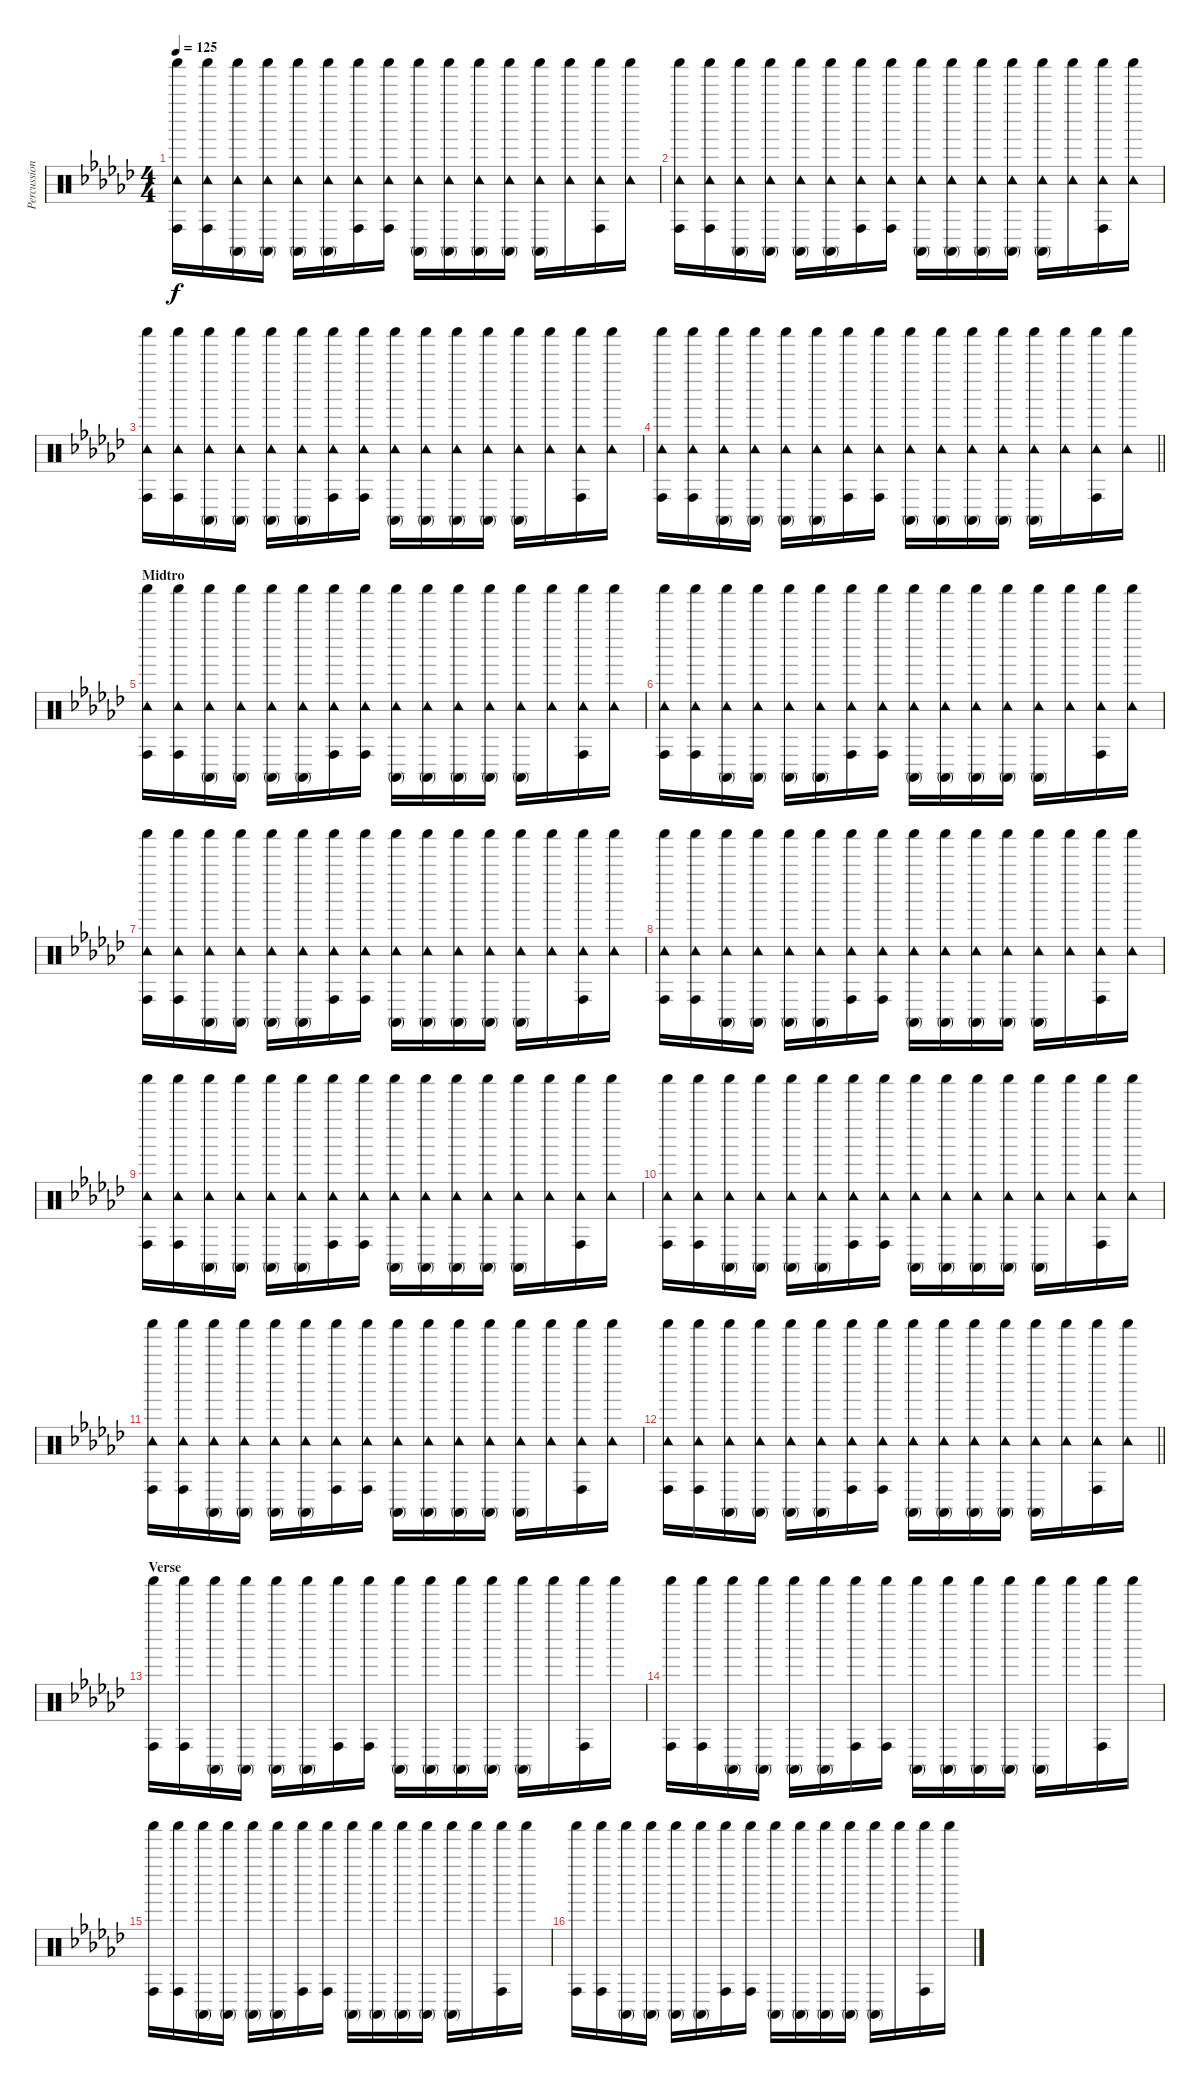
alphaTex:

\track ("Percussion" "Percussion") {instrument percussion}
\staff {score}
\articulation defaults
\ts (4 4)
\tempo 125
\clef neutral
\ks gb
("Shaker (hit)" "Tambourine (hit)" "Conga high (hit)").16{dy f} ("Shaker (hit)" "Tambourine (hit)" "Conga high (hit)").16 ("Shaker (hit)" "Tambourine (hit)" "Conga high (mute)").16 ("Shaker (hit)" "Tambourine (hit)" "Conga high (mute)").16 ("Shaker (hit)" "Tambourine (hit)" "Conga high (mute)").16 ("Shaker (hit)" "Tambourine (hit)" "Conga high (mute)").16 ("Shaker (hit)" "Tambourine (hit)" "Conga high (hit)").16 ("Shaker (hit)" "Tambourine (hit)" "Conga high (hit)").16 ("Shaker (hit)" "Tambourine (hit)" "Conga high (mute)").16 ("Shaker (hit)" "Tambourine (hit)" "Conga high (mute)").16 ("Shaker (hit)" "Tambourine (hit)" "Conga high (mute)").16 ("Shaker (hit)" "Tambourine (hit)" "Conga high (mute)").16 ("Shaker (hit)" "Tambourine (hit)" "Conga high (mute)").16 ("Shaker (hit)" "Tambourine (hit)").16 ("Shaker (hit)" "Tambourine (hit)" "Conga high (hit)").16 ("Shaker (hit)" "Tambourine (hit)").16 |
("Shaker (hit)" "Tambourine (hit)" "Conga high (hit)").16 ("Shaker (hit)" "Tambourine (hit)" "Conga high (hit)").16 ("Shaker (hit)" "Tambourine (hit)" "Conga high (mute)").16 ("Shaker (hit)" "Tambourine (hit)" "Conga high (mute)").16 ("Shaker (hit)" "Tambourine (hit)" "Conga high (mute)").16 ("Shaker (hit)" "Tambourine (hit)" "Conga high (mute)").16 ("Shaker (hit)" "Tambourine (hit)" "Conga high (hit)").16 ("Shaker (hit)" "Tambourine (hit)" "Conga high (hit)").16 ("Shaker (hit)" "Tambourine (hit)" "Conga high (mute)").16 ("Shaker (hit)" "Tambourine (hit)" "Conga high (mute)").16 ("Shaker (hit)" "Tambourine (hit)" "Conga high (mute)").16 ("Shaker (hit)" "Tambourine (hit)" "Conga high (mute)").16 ("Shaker (hit)" "Tambourine (hit)" "Conga high (mute)").16 ("Shaker (hit)" "Tambourine (hit)").16 ("Shaker (hit)" "Tambourine (hit)" "Conga high (hit)").16 ("Shaker (hit)" "Tambourine (hit)").16 |
("Shaker (hit)" "Tambourine (hit)" "Conga high (hit)").16 ("Shaker (hit)" "Tambourine (hit)" "Conga high (hit)").16 ("Shaker (hit)" "Tambourine (hit)" "Conga high (mute)").16 ("Shaker (hit)" "Tambourine (hit)" "Conga high (mute)").16 ("Shaker (hit)" "Tambourine (hit)" "Conga high (mute)").16 ("Shaker (hit)" "Tambourine (hit)" "Conga high (mute)").16 ("Shaker (hit)" "Tambourine (hit)" "Conga high (hit)").16 ("Shaker (hit)" "Tambourine (hit)" "Conga high (hit)").16 ("Shaker (hit)" "Tambourine (hit)" "Conga high (mute)").16 ("Shaker (hit)" "Tambourine (hit)" "Conga high (mute)").16 ("Shaker (hit)" "Tambourine (hit)" "Conga high (mute)").16 ("Shaker (hit)" "Tambourine (hit)" "Conga high (mute)").16 ("Shaker (hit)" "Tambourine (hit)" "Conga high (mute)").16 ("Shaker (hit)" "Tambourine (hit)").16 ("Shaker (hit)" "Tambourine (hit)" "Conga high (hit)").16 ("Shaker (hit)" "Tambourine (hit)").16 |
\barLineRight lightlight
("Shaker (hit)" "Tambourine (hit)" "Conga high (hit)").16 ("Shaker (hit)" "Tambourine (hit)" "Conga high (hit)").16 ("Shaker (hit)" "Tambourine (hit)" "Conga high (mute)").16 ("Shaker (hit)" "Tambourine (hit)" "Conga high (mute)").16 ("Shaker (hit)" "Tambourine (hit)" "Conga high (mute)").16 ("Shaker (hit)" "Tambourine (hit)" "Conga high (mute)").16 ("Shaker (hit)" "Tambourine (hit)" "Conga high (hit)").16 ("Shaker (hit)" "Tambourine (hit)" "Conga high (hit)").16 ("Shaker (hit)" "Tambourine (hit)" "Conga high (mute)").16 ("Shaker (hit)" "Tambourine (hit)" "Conga high (mute)").16 ("Shaker (hit)" "Tambourine (hit)" "Conga high (mute)").16 ("Shaker (hit)" "Tambourine (hit)" "Conga high (mute)").16 ("Shaker (hit)" "Tambourine (hit)" "Conga high (mute)").16 ("Shaker (hit)" "Tambourine (hit)").16 ("Shaker (hit)" "Tambourine (hit)" "Conga high (hit)").16 ("Shaker (hit)" "Tambourine (hit)").16 |
\section ("" "Midtro")
("Shaker (hit)" "Tambourine (hit)" "Conga high (hit)").16 ("Shaker (hit)" "Tambourine (hit)" "Conga high (hit)").16 ("Shaker (hit)" "Tambourine (hit)" "Conga high (mute)").16 ("Shaker (hit)" "Tambourine (hit)" "Conga high (mute)").16 ("Shaker (hit)" "Tambourine (hit)" "Conga high (mute)").16 ("Shaker (hit)" "Tambourine (hit)" "Conga high (mute)").16 ("Shaker (hit)" "Tambourine (hit)" "Conga high (hit)").16 ("Shaker (hit)" "Tambourine (hit)" "Conga high (hit)").16 ("Shaker (hit)" "Tambourine (hit)" "Conga high (mute)").16 ("Shaker (hit)" "Tambourine (hit)" "Conga high (mute)").16 ("Shaker (hit)" "Tambourine (hit)" "Conga high (mute)").16 ("Shaker (hit)" "Tambourine (hit)" "Conga high (mute)").16 ("Shaker (hit)" "Tambourine (hit)" "Conga high (mute)").16 ("Shaker (hit)" "Tambourine (hit)").16 ("Shaker (hit)" "Tambourine (hit)" "Conga high (hit)").16 ("Shaker (hit)" "Tambourine (hit)").16 |
("Shaker (hit)" "Tambourine (hit)" "Conga high (hit)").16 ("Shaker (hit)" "Tambourine (hit)" "Conga high (hit)").16 ("Shaker (hit)" "Tambourine (hit)" "Conga high (mute)").16 ("Shaker (hit)" "Tambourine (hit)" "Conga high (mute)").16 ("Shaker (hit)" "Tambourine (hit)" "Conga high (mute)").16 ("Shaker (hit)" "Tambourine (hit)" "Conga high (mute)").16 ("Shaker (hit)" "Tambourine (hit)" "Conga high (hit)").16 ("Shaker (hit)" "Tambourine (hit)" "Conga high (hit)").16 ("Shaker (hit)" "Tambourine (hit)" "Conga high (mute)").16 ("Shaker (hit)" "Tambourine (hit)" "Conga high (mute)").16 ("Shaker (hit)" "Tambourine (hit)" "Conga high (mute)").16 ("Shaker (hit)" "Tambourine (hit)" "Conga high (mute)").16 ("Shaker (hit)" "Tambourine (hit)" "Conga high (mute)").16 ("Shaker (hit)" "Tambourine (hit)").16 ("Shaker (hit)" "Tambourine (hit)" "Conga high (hit)").16 ("Shaker (hit)" "Tambourine (hit)").16 |
("Shaker (hit)" "Tambourine (hit)" "Conga high (hit)").16 ("Shaker (hit)" "Tambourine (hit)" "Conga high (hit)").16 ("Shaker (hit)" "Tambourine (hit)" "Conga high (mute)").16 ("Shaker (hit)" "Tambourine (hit)" "Conga high (mute)").16 ("Shaker (hit)" "Tambourine (hit)" "Conga high (mute)").16 ("Shaker (hit)" "Tambourine (hit)" "Conga high (mute)").16 ("Shaker (hit)" "Tambourine (hit)" "Conga high (hit)").16 ("Shaker (hit)" "Tambourine (hit)" "Conga high (hit)").16 ("Shaker (hit)" "Tambourine (hit)" "Conga high (mute)").16 ("Shaker (hit)" "Tambourine (hit)" "Conga high (mute)").16 ("Shaker (hit)" "Tambourine (hit)" "Conga high (mute)").16 ("Shaker (hit)" "Tambourine (hit)" "Conga high (mute)").16 ("Shaker (hit)" "Tambourine (hit)" "Conga high (mute)").16 ("Shaker (hit)" "Tambourine (hit)").16 ("Shaker (hit)" "Tambourine (hit)" "Conga high (hit)").16 ("Shaker (hit)" "Tambourine (hit)").16 |
("Shaker (hit)" "Tambourine (hit)" "Conga high (hit)").16 ("Shaker (hit)" "Tambourine (hit)" "Conga high (hit)").16 ("Shaker (hit)" "Tambourine (hit)" "Conga high (mute)").16 ("Shaker (hit)" "Tambourine (hit)" "Conga high (mute)").16 ("Shaker (hit)" "Tambourine (hit)" "Conga high (mute)").16 ("Shaker (hit)" "Tambourine (hit)" "Conga high (mute)").16 ("Shaker (hit)" "Tambourine (hit)" "Conga high (hit)").16 ("Shaker (hit)" "Tambourine (hit)" "Conga high (hit)").16 ("Shaker (hit)" "Tambourine (hit)" "Conga high (mute)").16 ("Shaker (hit)" "Tambourine (hit)" "Conga high (mute)").16 ("Shaker (hit)" "Tambourine (hit)" "Conga high (mute)").16 ("Shaker (hit)" "Tambourine (hit)" "Conga high (mute)").16 ("Shaker (hit)" "Tambourine (hit)" "Conga high (mute)").16 ("Shaker (hit)" "Tambourine (hit)").16 ("Shaker (hit)" "Tambourine (hit)" "Conga high (hit)").16 ("Shaker (hit)" "Tambourine (hit)").16 |
("Shaker (hit)" "Tambourine (hit)" "Conga high (hit)").16 ("Shaker (hit)" "Tambourine (hit)" "Conga high (hit)").16 ("Shaker (hit)" "Tambourine (hit)" "Conga high (mute)").16 ("Shaker (hit)" "Tambourine (hit)" "Conga high (mute)").16 ("Shaker (hit)" "Tambourine (hit)" "Conga high (mute)").16 ("Shaker (hit)" "Tambourine (hit)" "Conga high (mute)").16 ("Shaker (hit)" "Tambourine (hit)" "Conga high (hit)").16 ("Shaker (hit)" "Tambourine (hit)" "Conga high (hit)").16 ("Shaker (hit)" "Tambourine (hit)" "Conga high (mute)").16 ("Shaker (hit)" "Tambourine (hit)" "Conga high (mute)").16 ("Shaker (hit)" "Tambourine (hit)" "Conga high (mute)").16 ("Shaker (hit)" "Tambourine (hit)" "Conga high (mute)").16 ("Shaker (hit)" "Tambourine (hit)" "Conga high (mute)").16 ("Shaker (hit)" "Tambourine (hit)").16 ("Shaker (hit)" "Tambourine (hit)" "Conga high (hit)").16 ("Shaker (hit)" "Tambourine (hit)").16 |
("Shaker (hit)" "Tambourine (hit)" "Conga high (hit)").16 ("Shaker (hit)" "Tambourine (hit)" "Conga high (hit)").16 ("Shaker (hit)" "Tambourine (hit)" "Conga high (mute)").16 ("Shaker (hit)" "Tambourine (hit)" "Conga high (mute)").16 ("Shaker (hit)" "Tambourine (hit)" "Conga high (mute)").16 ("Shaker (hit)" "Tambourine (hit)" "Conga high (mute)").16 ("Shaker (hit)" "Tambourine (hit)" "Conga high (hit)").16 ("Shaker (hit)" "Tambourine (hit)" "Conga high (hit)").16 ("Shaker (hit)" "Tambourine (hit)" "Conga high (mute)").16 ("Shaker (hit)" "Tambourine (hit)" "Conga high (mute)").16 ("Shaker (hit)" "Tambourine (hit)" "Conga high (mute)").16 ("Shaker (hit)" "Tambourine (hit)" "Conga high (mute)").16 ("Shaker (hit)" "Tambourine (hit)" "Conga high (mute)").16 ("Shaker (hit)" "Tambourine (hit)").16 ("Shaker (hit)" "Tambourine (hit)" "Conga high (hit)").16 ("Shaker (hit)" "Tambourine (hit)").16 |
("Shaker (hit)" "Tambourine (hit)" "Conga high (hit)").16 ("Shaker (hit)" "Tambourine (hit)" "Conga high (hit)").16 ("Shaker (hit)" "Tambourine (hit)" "Conga high (mute)").16 ("Shaker (hit)" "Tambourine (hit)" "Conga high (mute)").16 ("Shaker (hit)" "Tambourine (hit)" "Conga high (mute)").16 ("Shaker (hit)" "Tambourine (hit)" "Conga high (mute)").16 ("Shaker (hit)" "Tambourine (hit)" "Conga high (hit)").16 ("Shaker (hit)" "Tambourine (hit)" "Conga high (hit)").16 ("Shaker (hit)" "Tambourine (hit)" "Conga high (mute)").16 ("Shaker (hit)" "Tambourine (hit)" "Conga high (mute)").16 ("Shaker (hit)" "Tambourine (hit)" "Conga high (mute)").16 ("Shaker (hit)" "Tambourine (hit)" "Conga high (mute)").16 ("Shaker (hit)" "Tambourine (hit)" "Conga high (mute)").16 ("Shaker (hit)" "Tambourine (hit)").16 ("Shaker (hit)" "Tambourine (hit)" "Conga high (hit)").16 ("Shaker (hit)" "Tambourine (hit)").16 |
\barLineRight lightlight
("Shaker (hit)" "Tambourine (hit)" "Conga high (hit)").16 ("Shaker (hit)" "Tambourine (hit)" "Conga high (hit)").16 ("Shaker (hit)" "Tambourine (hit)" "Conga high (mute)").16 ("Shaker (hit)" "Tambourine (hit)" "Conga high (mute)").16 ("Shaker (hit)" "Tambourine (hit)" "Conga high (mute)").16 ("Shaker (hit)" "Tambourine (hit)" "Conga high (mute)").16 ("Shaker (hit)" "Tambourine (hit)" "Conga high (hit)").16 ("Shaker (hit)" "Tambourine (hit)" "Conga high (hit)").16 ("Shaker (hit)" "Tambourine (hit)" "Conga high (mute)").16 ("Shaker (hit)" "Tambourine (hit)" "Conga high (mute)").16 ("Shaker (hit)" "Tambourine (hit)" "Conga high (mute)").16 ("Shaker (hit)" "Tambourine (hit)" "Conga high (mute)").16 ("Shaker (hit)" "Tambourine (hit)" "Conga high (mute)").16 ("Shaker (hit)" "Tambourine (hit)").16 ("Shaker (hit)" "Tambourine (hit)" "Conga high (hit)").16 ("Shaker (hit)" "Tambourine (hit)").16 |
\section ("" "Verse")
("Shaker (hit)" "Conga high (hit)").16 ("Shaker (hit)" "Conga high (hit)").16 ("Shaker (hit)" "Conga high (mute)").16 ("Shaker (hit)" "Conga high (mute)").16 ("Shaker (hit)" "Conga high (mute)").16 ("Shaker (hit)" "Conga high (mute)").16 ("Shaker (hit)" "Conga high (hit)").16 ("Shaker (hit)" "Conga high (hit)").16 ("Shaker (hit)" "Conga high (mute)").16 ("Shaker (hit)" "Conga high (mute)").16 ("Shaker (hit)" "Conga high (mute)").16 ("Shaker (hit)" "Conga high (mute)").16 ("Shaker (hit)" "Conga high (mute)").16 "Shaker (hit)".16 ("Shaker (hit)" "Conga high (hit)").16 "Shaker (hit)".16 |
("Shaker (hit)" "Conga high (hit)").16 ("Shaker (hit)" "Conga high (hit)").16 ("Shaker (hit)" "Conga high (mute)").16 ("Shaker (hit)" "Conga high (mute)").16 ("Shaker (hit)" "Conga high (mute)").16 ("Shaker (hit)" "Conga high (mute)").16 ("Shaker (hit)" "Conga high (hit)").16 ("Shaker (hit)" "Conga high (hit)").16 ("Shaker (hit)" "Conga high (mute)").16 ("Shaker (hit)" "Conga high (mute)").16 ("Shaker (hit)" "Conga high (mute)").16 ("Shaker (hit)" "Conga high (mute)").16 ("Shaker (hit)" "Conga high (mute)").16 "Shaker (hit)".16 ("Shaker (hit)" "Conga high (hit)").16 "Shaker (hit)".16 |
("Shaker (hit)" "Conga high (hit)").16 ("Shaker (hit)" "Conga high (hit)").16 ("Shaker (hit)" "Conga high (mute)").16 ("Shaker (hit)" "Conga high (mute)").16 ("Shaker (hit)" "Conga high (mute)").16 ("Shaker (hit)" "Conga high (mute)").16 ("Shaker (hit)" "Conga high (hit)").16 ("Shaker (hit)" "Conga high (hit)").16 ("Shaker (hit)" "Conga high (mute)").16 ("Shaker (hit)" "Conga high (mute)").16 ("Shaker (hit)" "Conga high (mute)").16 ("Shaker (hit)" "Conga high (mute)").16 ("Shaker (hit)" "Conga high (mute)").16 "Shaker (hit)".16 ("Shaker (hit)" "Conga high (hit)").16 "Shaker (hit)".16 |
("Shaker (hit)" "Conga high (hit)").16 ("Shaker (hit)" "Conga high (hit)").16 ("Shaker (hit)" "Conga high (mute)").16 ("Shaker (hit)" "Conga high (mute)").16 ("Shaker (hit)" "Conga high (mute)").16 ("Shaker (hit)" "Conga high (mute)").16 ("Shaker (hit)" "Conga high (hit)").16 ("Shaker (hit)" "Conga high (hit)").16 ("Shaker (hit)" "Conga high (mute)").16 ("Shaker (hit)" "Conga high (mute)").16 ("Shaker (hit)" "Conga high (mute)").16 ("Shaker (hit)" "Conga high (mute)").16 ("Shaker (hit)" "Conga high (mute)").16 "Shaker (hit)".16 ("Shaker (hit)" "Conga high (hit)").16 "Shaker (hit)".16
